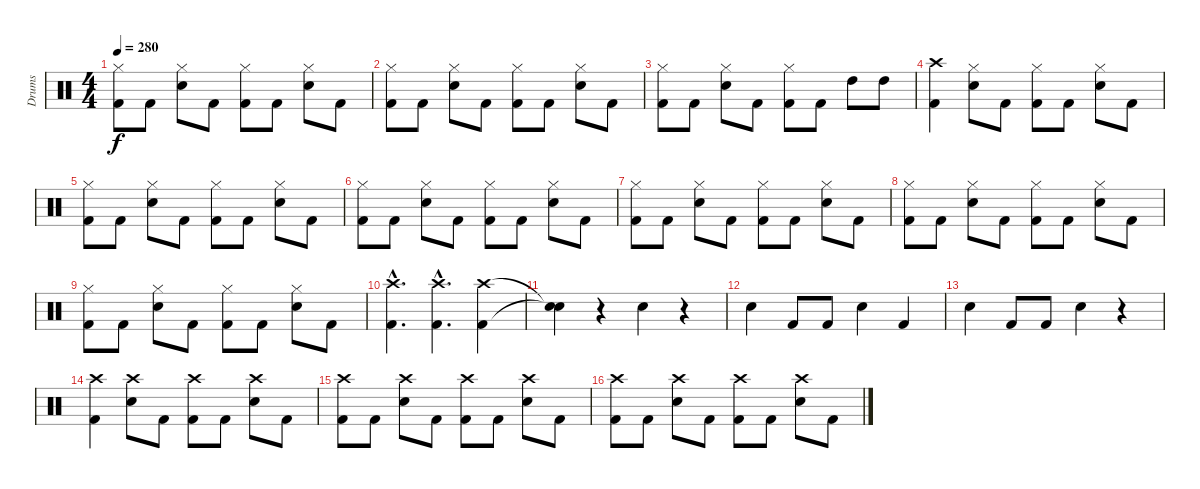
\track ("Drums" "Drums") {instrument percussion}
\staff {score}
\articulation defaults
\ts (4 4)
\tempo 280
\clef neutral
\ks c
("Hi-Hat (closed)" "Kick (hit) 2").8{dy f} "Kick (hit) 2".8 ("Hi-Hat (closed)" "Snare (hit) 2").8 "Kick (hit) 2".8 ("Hi-Hat (closed)" "Kick (hit) 2").8 "Kick (hit) 2".8 ("Hi-Hat (closed)" "Snare (hit) 2").8 "Kick (hit) 2".8 |
("Hi-Hat (closed)" "Kick (hit) 2").8 "Kick (hit) 2".8 ("Hi-Hat (closed)" "Snare (hit) 2").8 "Kick (hit) 2".8 ("Hi-Hat (closed)" "Kick (hit) 2").8 "Kick (hit) 2".8 ("Hi-Hat (closed)" "Snare (hit) 2").8 "Kick (hit) 2".8 |
("Hi-Hat (closed)" "Kick (hit) 2").8 "Kick (hit) 2".8 ("Hi-Hat (closed)" "Snare (hit) 2").8 "Kick (hit) 2".8 ("Hi-Hat (closed)" "Kick (hit) 2").8 "Kick (hit) 2".8 "High Tom (hit)".8 "High Tom (hit)".8 |
("Kick (hit) 2" "Crash high (hit)").4 ("Hi-Hat (closed)" "Snare (hit) 2").8 "Kick (hit) 2".8 ("Hi-Hat (closed)" "Kick (hit) 2").8 "Kick (hit) 2".8 ("Hi-Hat (closed)" "Snare (hit) 2").8 "Kick (hit) 2".8 |
("Hi-Hat (closed)" "Kick (hit) 2").8 "Kick (hit) 2".8 ("Hi-Hat (closed)" "Snare (hit) 2").8 "Kick (hit) 2".8 ("Hi-Hat (closed)" "Kick (hit) 2").8 "Kick (hit) 2".8 ("Hi-Hat (closed)" "Snare (hit) 2").8 "Kick (hit) 2".8 |
("Hi-Hat (closed)" "Kick (hit) 2").8 "Kick (hit) 2".8 ("Hi-Hat (closed)" "Snare (hit) 2").8 "Kick (hit) 2".8 ("Hi-Hat (closed)" "Kick (hit) 2").8 "Kick (hit) 2".8 ("Hi-Hat (closed)" "Snare (hit) 2").8 "Kick (hit) 2".8 |
("Hi-Hat (closed)" "Kick (hit) 2").8 "Kick (hit) 2".8 ("Hi-Hat (closed)" "Snare (hit) 2").8 "Kick (hit) 2".8 ("Hi-Hat (closed)" "Kick (hit) 2").8 "Kick (hit) 2".8 ("Hi-Hat (closed)" "Snare (hit) 2").8 "Kick (hit) 2".8 |
("Hi-Hat (closed)" "Kick (hit) 2").8 "Kick (hit) 2".8 ("Hi-Hat (closed)" "Snare (hit) 2").8 "Kick (hit) 2".8 ("Hi-Hat (closed)" "Kick (hit) 2").8 "Kick (hit) 2".8 ("Hi-Hat (closed)" "Snare (hit) 2").8 "Kick (hit) 2".8 |
("Hi-Hat (closed)" "Kick (hit) 2").8 "Kick (hit) 2".8 ("Hi-Hat (closed)" "Snare (hit) 2").8 "Kick (hit) 2".8 ("Hi-Hat (closed)" "Kick (hit) 2").8 "Kick (hit) 2".8 ("Hi-Hat (closed)" "Snare (hit) 2").8 "Kick (hit) 2".8 |
("Kick (hit) 2"{hac} "Crash high (hit)"{hac}).4{d} ("Kick (hit) 2"{hac} "Crash high (hit)"{hac}).4{d} ("Kick (hit) 2" "Crash high (hit)").4 |
("Snare (hit)"{t} "Snare (hit)"{t}).4 r.4 "Snare (hit) 2".4 r.4 |
"Snare (hit) 2".4 "Kick (hit) 2".8 "Kick (hit) 2".8 "Snare (hit) 2".4 "Kick (hit) 2".4 |
"Snare (hit) 2".4 "Kick (hit) 2".8 "Kick (hit) 2".8 "Snare (hit) 2".4 r.4 |
("Crash high (hit)" "Kick (hit) 2").4 ("Crash high (hit)" "Snare (hit) 2").8 "Kick (hit) 2".8 ("Crash high (hit)" "Kick (hit) 2").8 "Kick (hit) 2".8 ("Crash high (hit)" "Snare (hit) 2").8 "Kick (hit) 2".8 |
("Crash high (hit)" "Kick (hit) 2").8 "Kick (hit) 2".8 ("Crash high (hit)" "Snare (hit) 2").8 "Kick (hit) 2".8 ("Crash high (hit)" "Kick (hit) 2").8 "Kick (hit) 2".8 ("Crash high (hit)" "Snare (hit) 2").8 "Kick (hit) 2".8 |
("Crash high (hit)" "Kick (hit) 2").8 "Kick (hit) 2".8 ("Crash high (hit)" "Snare (hit) 2").8 "Kick (hit) 2".8 ("Crash high (hit)" "Kick (hit) 2").8 "Kick (hit) 2".8 ("Crash high (hit)" "Snare (hit) 2").8 "Kick (hit) 2".8
